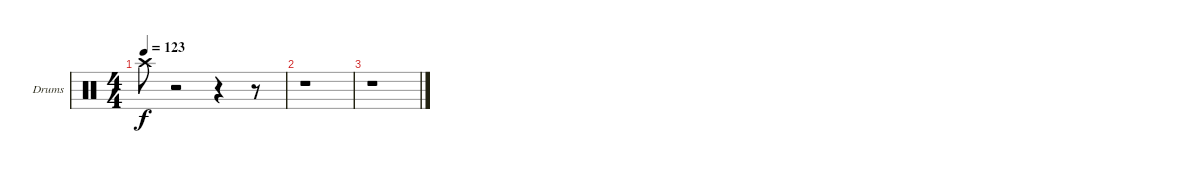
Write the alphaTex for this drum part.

\bracketExtendMode groupsimilarinstruments
\firstSystemTrackNameOrientation horizontal
\otherSystemsTrackNameOrientation horizontal
\track ("Drumkit" "Drums") {instrument percussion}
\staff {score}
\articulation defaults
\ts (4 4)
\tempo 123
\clef neutral
\ks c "Crash high (hit)".8{dy f}
r.2 r.4 r.8 |
r.1 |
r.1
